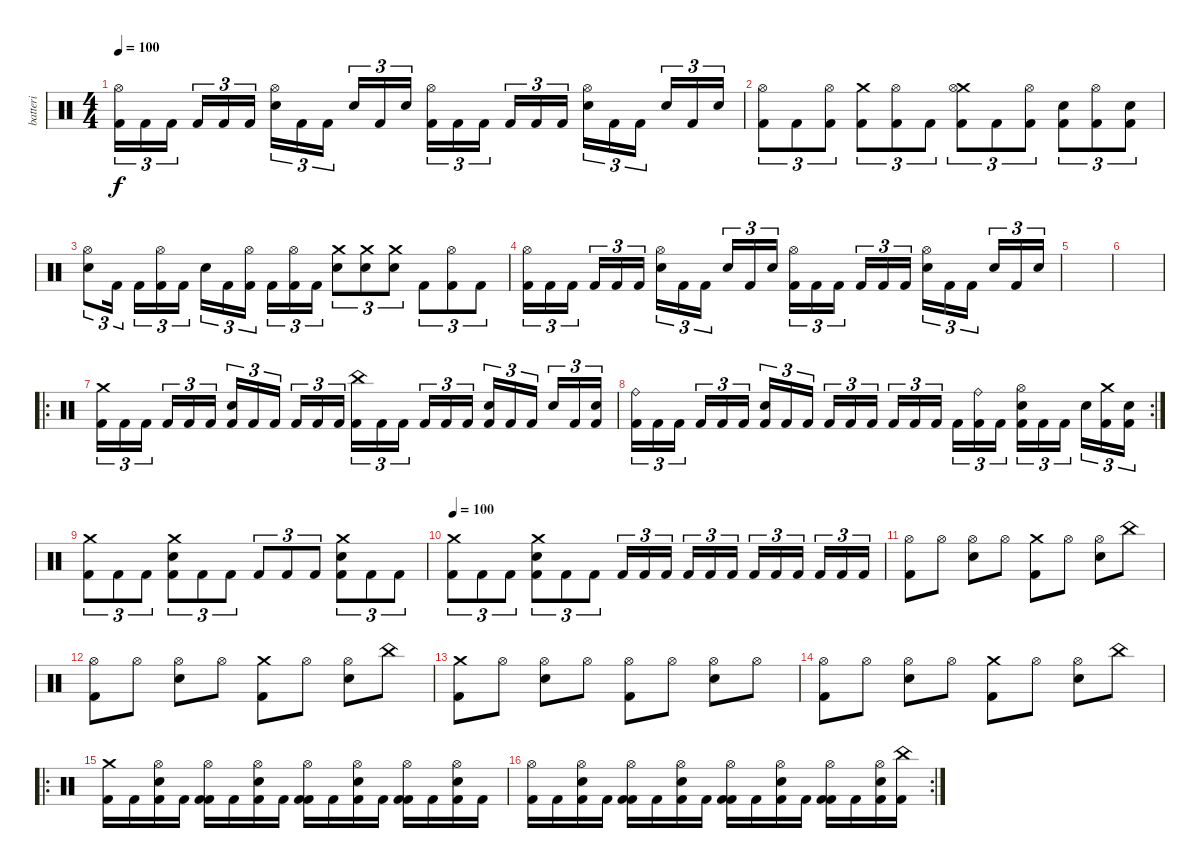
\track ("batteri" "batteri") {instrument percussion}
\staff {score}
\articulation defaults
\ts (4 4)
\tempo 100
\clef neutral
\ks c
("Hi-Hat (open)" "Kick (hit) 2").16{tu (3 2) dy f} "Kick (hit) 2".16{tu (3 2)} "Kick (hit) 2".16{tu (3 2)} "Kick (hit) 2".16{tu (3 2)} "Kick (hit) 2".16{tu (3 2)} "Kick (hit) 2".16{tu (3 2)} ("Hi-Hat (open)" "Electric Snare (hit)").16{tu (3 2)} "Kick (hit) 2".16{tu (3 2)} "Kick (hit) 2".16{tu (3 2)} "Electric Snare (hit)".16{tu (3 2)} "Kick (hit) 2".16{tu (3 2)} "Electric Snare (hit)".16{tu (3 2)} ("Hi-Hat (open)" "Kick (hit) 2").16{tu (3 2)} "Kick (hit) 2".16{tu (3 2)} "Kick (hit) 2".16{tu (3 2)} "Kick (hit) 2".16{tu (3 2)} "Kick (hit) 2".16{tu (3 2)} "Kick (hit) 2".16{tu (3 2)} ("Hi-Hat (open)" "Electric Snare (hit)").16{tu (3 2)} "Kick (hit) 2".16{tu (3 2)} "Kick (hit) 2".16{tu (3 2)} "Electric Snare (hit)".16{tu (3 2)} "Kick (hit) 2".16{tu (3 2)} "Electric Snare (hit)".16{tu (3 2)} |
("Kick (hit) 2" "Hi-Hat (open)").8{tu (3 2)} "Kick (hit) 2".8{tu (3 2)} ("Kick (hit) 2" "Hi-Hat (open)").8{tu (3 2)} ("Crash medium (hit)" "Kick (hit) 2").8{tu (3 2)} ("Kick (hit) 2" "Hi-Hat (open)").8{tu (3 2)} "Kick (hit) 2".8{tu (3 2)} ("Crash medium (hit)" "Kick (hit) 2" "Hi-Hat (open)").8{tu (3 2)} "Kick (hit) 2".8{tu (3 2)} ("Kick (hit) 2" "Hi-Hat (open)").8{tu (3 2)} ("Electric Snare (hit)" "Kick (hit) 2").8{tu (3 2)} ("Kick (hit) 2" "Hi-Hat (open)").8{tu (3 2)} ("Electric Snare (hit)" "Kick (hit) 2").8{tu (3 2)} |
("Electric Snare (hit)" "Hi-Hat (open)").8{tu (3 2)} "Kick (hit) 2".16{tu (3 2)} "Kick (hit) 2".16{tu (3 2)} ("Hi-Hat (open)" "Kick (hit) 2").16{tu (3 2)} "Kick (hit) 2".16{tu (3 2)} "Electric Snare (hit)".16{tu (3 2)} "Kick (hit) 2".16{tu (3 2)} ("Hi-Hat (open)" "Kick (hit) 2").16{tu (3 2)} "Kick (hit) 2".16{tu (3 2)} ("Hi-Hat (open)" "Kick (hit) 2").16{tu (3 2)} "Kick (hit) 2".16{tu (3 2)} ("Crash medium (hit)" "Electric Snare (hit)").8{tu (3 2)} ("Crash medium (hit)" "Electric Snare (hit)").8{tu (3 2)} ("Crash medium (hit)" "Electric Snare (hit)").8{tu (3 2)} "Kick (hit) 2".8{tu (3 2)} ("Hi-Hat (open)" "Kick (hit) 2").8{tu (3 2)} "Kick (hit) 2".8{tu (3 2)} |
("Hi-Hat (open)" "Kick (hit) 2").16{tu (3 2)} "Kick (hit) 2".16{tu (3 2)} "Kick (hit) 2".16{tu (3 2)} "Kick (hit) 2".16{tu (3 2)} "Kick (hit) 2".16{tu (3 2)} "Kick (hit) 2".16{tu (3 2)} ("Hi-Hat (open)" "Electric Snare (hit)").16{tu (3 2)} "Kick (hit) 2".16{tu (3 2)} "Kick (hit) 2".16{tu (3 2)} "Electric Snare (hit)".16{tu (3 2)} "Kick (hit) 2".16{tu (3 2)} "Electric Snare (hit)".16{tu (3 2)} ("Hi-Hat (open)" "Kick (hit) 2").16{tu (3 2)} "Kick (hit) 2".16{tu (3 2)} "Kick (hit) 2".16{tu (3 2)} "Kick (hit) 2".16{tu (3 2)} "Kick (hit) 2".16{tu (3 2)} "Kick (hit) 2".16{tu (3 2)} ("Hi-Hat (open)" "Electric Snare (hit)").16{tu (3 2)} "Kick (hit) 2".16{tu (3 2)} "Kick (hit) 2".16{tu (3 2)} "Electric Snare (hit)".16{tu (3 2)} "Kick (hit) 2".16{tu (3 2)} "Electric Snare (hit)".16{tu (3 2)} |
|
|
\ro
("Crash medium (hit)" "Kick (hit) 2").16{tu (3 2)} "Kick (hit) 2".16{tu (3 2)} "Kick (hit) 2".16{tu (3 2)} "Kick (hit) 2".16{tu (3 2)} "Kick (hit) 2".16{tu (3 2)} "Kick (hit) 2".16{tu (3 2)} ("Electric Snare (hit)" "Kick (hit) 2").16{tu (3 2)} "Kick (hit) 2".16{tu (3 2)} "Kick (hit) 2".16{tu (3 2)} "Kick (hit) 2".16{tu (3 2)} "Kick (hit) 2".16{tu (3 2)} "Kick (hit) 2".16{tu (3 2)} ("China (hit)" "Kick (hit) 2").16{tu (3 2)} "Kick (hit) 2".16{tu (3 2)} "Kick (hit) 2".16{tu (3 2)} "Kick (hit) 2".16{tu (3 2)} "Kick (hit) 2".16{tu (3 2)} "Kick (hit) 2".16{tu (3 2)} ("Electric Snare (hit)" "Kick (hit) 2").16{tu (3 2)} "Kick (hit) 2".16{tu (3 2)} "Kick (hit) 2".16{tu (3 2)} "Electric Snare (hit)".16{tu (3 2)} "Kick (hit) 2".16{tu (3 2)} ("Electric Snare (hit)" "Kick (hit) 2").16{tu (3 2)} |
\rc 2
("Ride (bell)" "Kick (hit) 2").16{tu (3 2)} "Kick (hit) 2".16{tu (3 2)} "Kick (hit) 2".16{tu (3 2)} "Kick (hit) 2".16{tu (3 2)} "Kick (hit) 2".16{tu (3 2)} "Kick (hit) 2".16{tu (3 2)} ("Electric Snare (hit)" "Kick (hit) 2").16{tu (3 2)} "Kick (hit) 2".16{tu (3 2)} "Kick (hit) 2".16{tu (3 2)} "Kick (hit) 2".16{tu (3 2)} "Kick (hit) 2".16{tu (3 2)} "Kick (hit) 2".16{tu (3 2)} "Kick (hit) 2".16{tu (3 2)} "Kick (hit) 2".16{tu (3 2)} "Kick (hit) 2".16{tu (3 2)} "Kick (hit) 2".16{tu (3 2)} ("Ride (bell)" "Kick (hit) 2").16{tu (3 2)} "Kick (hit) 2".16{tu (3 2)} ("Hi-Hat (open)" "Electric Snare (hit)" "Kick (hit) 2").16{tu (3 2)} "Kick (hit) 2".16{tu (3 2)} "Kick (hit) 2".16{tu (3 2)} "Electric Snare (hit)".16{tu (3 2)} ("Crash medium (hit)" "Kick (hit) 2").16{tu (3 2)} ("Electric Snare (hit)" "Kick (hit) 2").16{tu (3 2)} |
("Crash medium (hit)" "Kick (hit) 2").8{tu (3 2)} "Kick (hit) 2".8{tu (3 2)} "Kick (hit) 2".8{tu (3 2)} ("Crash medium (hit)" "Kick (hit) 2" "Electric Snare (hit)").8{tu (3 2)} "Kick (hit) 2".8{tu (3 2)} "Kick (hit) 2".8{tu (3 2)} "Kick (hit) 2".8{tu (3 2)} "Kick (hit) 2".8{tu (3 2)} "Kick (hit) 2".8{tu (3 2)} ("Crash medium (hit)" "Kick (hit) 2" "Electric Snare (hit)").8{tu (3 2)} "Kick (hit) 2".8{tu (3 2)} "Kick (hit) 2".8{tu (3 2)} |
\tempo 100
("Crash medium (hit)" "Kick (hit) 2").8{tu (3 2)} "Kick (hit) 2".8{tu (3 2)} "Kick (hit) 2".8{tu (3 2)} ("Crash medium (hit)" "Kick (hit) 2" "Electric Snare (hit)").8{tu (3 2)} "Kick (hit) 2".8{tu (3 2)} "Kick (hit) 2".8{tu (3 2)} "Kick (hit) 2".16{tu (3 2)} "Kick (hit) 2".16{tu (3 2)} "Kick (hit) 2".16{tu (3 2)} "Kick (hit) 2".16{tu (3 2)} "Kick (hit) 2".16{tu (3 2)} "Kick (hit) 2".16{tu (3 2)} "Kick (hit) 2".16{tu (3 2)} "Kick (hit) 2".16{tu (3 2)} "Kick (hit) 2".16{tu (3 2)} "Kick (hit) 2".16{tu (3 2)} "Kick (hit) 2".16{tu (3 2)} "Kick (hit) 2".16{tu (3 2)} |
("Hi-Hat (open)" "Kick (hit) 2").8 "Hi-Hat (open)".8 ("Hi-Hat (open)" "Electric Snare (hit)").8 "Hi-Hat (open)".8 ("Crash medium (hit)" "Kick (hit) 2").8 "Hi-Hat (open)".8 ("Hi-Hat (open)" "Electric Snare (hit)").8 "China (hit)".8 |
("Hi-Hat (open)" "Kick (hit) 2").8 "Hi-Hat (open)".8 ("Hi-Hat (open)" "Electric Snare (hit)").8 "Hi-Hat (open)".8 ("Crash medium (hit)" "Kick (hit) 2").8 "Hi-Hat (open)".8 ("Hi-Hat (open)" "Electric Snare (hit)").8 "China (hit)".8 |
("Crash medium (hit)" "Kick (hit) 2").8 "Hi-Hat (open)".8 ("Hi-Hat (open)" "Electric Snare (hit)").8 "Hi-Hat (open)".8 ("Hi-Hat (open)" "Kick (hit) 2").8 "Hi-Hat (open)".8 ("Hi-Hat (open)" "Electric Snare (hit)").8 "Hi-Hat (open)".8 |
("Hi-Hat (open)" "Kick (hit) 2").8 "Hi-Hat (open)".8 ("Hi-Hat (open)" "Electric Snare (hit)").8 "Hi-Hat (open)".8 ("Crash medium (hit)" "Kick (hit) 2").8 "Hi-Hat (open)".8 ("Hi-Hat (open)" "Electric Snare (hit)").8 "China (hit)".8 |
\ro
("Crash medium (hit)" "Kick (hit) 2").16 "Kick (hit) 2".16 ("Hi-Hat (open)" "Electric Snare (hit)" "Kick (hit) 2").16 "Kick (hit) 2".16 ("Hi-Hat (open)" "Kick (hit) 2" "Kick (hit) 2").16 "Kick (hit) 2".16 ("Hi-Hat (open)" "Electric Snare (hit)" "Kick (hit) 2").16 "Kick (hit) 2".16 ("Hi-Hat (open)" "Kick (hit) 2" "Kick (hit) 2").16 "Kick (hit) 2".16 ("Hi-Hat (open)" "Electric Snare (hit)" "Kick (hit) 2").16 "Kick (hit) 2".16 ("Hi-Hat (open)" "Kick (hit) 2" "Kick (hit) 2").16 "Kick (hit) 2".16 ("Hi-Hat (open)" "Electric Snare (hit)" "Kick (hit) 2").16 "Kick (hit) 2".16 |
\rc 2
("Hi-Hat (open)" "Kick (hit) 2").16 "Kick (hit) 2".16 ("Hi-Hat (open)" "Electric Snare (hit)" "Kick (hit) 2").16 "Kick (hit) 2".16 ("Hi-Hat (open)" "Kick (hit) 2" "Kick (hit) 2").16 "Kick (hit) 2".16 ("Hi-Hat (open)" "Electric Snare (hit)" "Kick (hit) 2").16 "Kick (hit) 2".16 ("Hi-Hat (open)" "Kick (hit) 2" "Kick (hit) 2").16 "Kick (hit) 2".16 ("Hi-Hat (open)" "Electric Snare (hit)" "Kick (hit) 2").16 "Kick (hit) 2".16 ("Hi-Hat (open)" "Kick (hit) 2" "Kick (hit) 2").16 "Kick (hit) 2".16 ("Hi-Hat (open)" "Electric Snare (hit)" "Kick (hit) 2").16 ("China (hit)" "Kick (hit) 2").16
